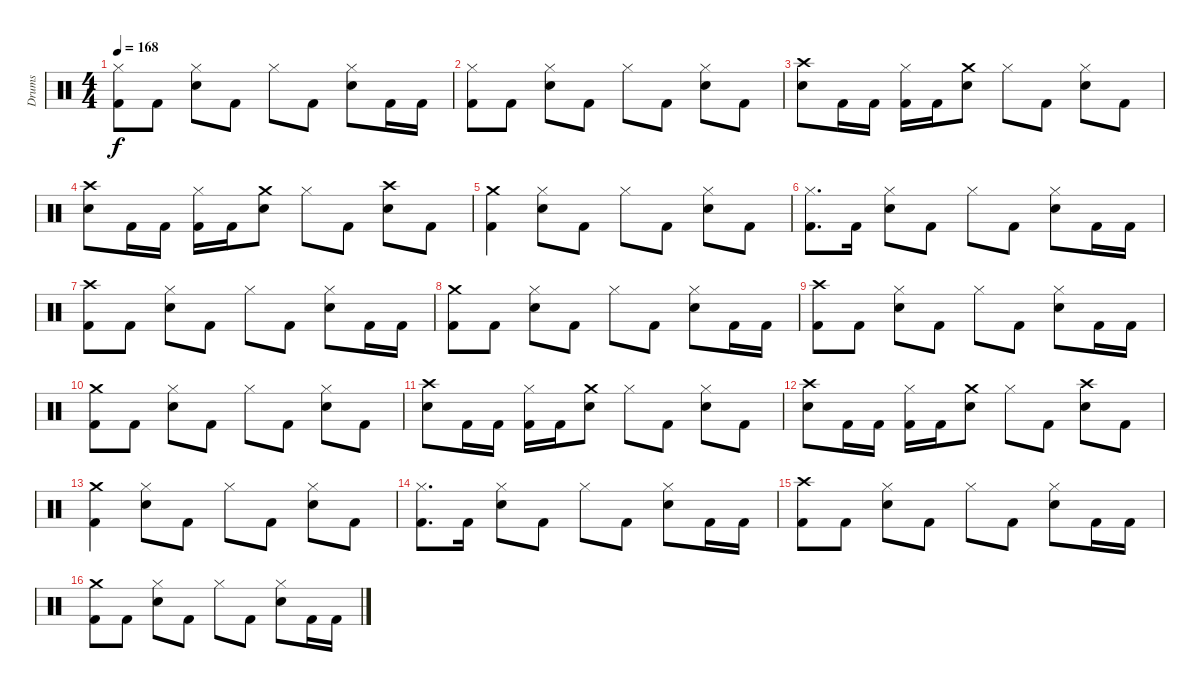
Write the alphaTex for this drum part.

\track ("Drums" "Drums") {instrument percussion}
\staff {score}
\articulation defaults
\ts (4 4)
\tempo 168
\clef neutral
\ks c
("Hi-Hat (closed)" "Kick (hit) 2").8{dy f} "Kick (hit) 2".8 ("Hi-Hat (closed)" "Snare (hit) 2").8 "Kick (hit) 2".8 "Hi-Hat (closed)".8 "Kick (hit) 2".8 ("Hi-Hat (closed)" "Snare (hit) 2").8 "Kick (hit) 2".16 "Kick (hit) 2".16 |
("Hi-Hat (closed)" "Kick (hit) 2").8 "Kick (hit) 2".8 ("Hi-Hat (closed)" "Snare (hit) 2").8 "Kick (hit) 2".8 "Hi-Hat (closed)".8 "Kick (hit) 2".8 ("Hi-Hat (closed)" "Snare (hit) 2").8 "Kick (hit) 2".8 |
("Crash high (hit)" "Snare (hit) 2").8 "Kick (hit) 2".16 "Kick (hit) 2".16 ("Hi-Hat (closed)" "Kick (hit) 2").16 "Kick (hit) 2".16 ("Crash medium (hit)" "Snare (hit) 2").8 "Hi-Hat (closed)".8 "Kick (hit) 2".8 ("Hi-Hat (closed)" "Snare (hit) 2").8 "Kick (hit) 2".8 |
("Crash high (hit)" "Snare (hit) 2").8 "Kick (hit) 2".16 "Kick (hit) 2".16 ("Hi-Hat (closed)" "Kick (hit) 2").16 "Kick (hit) 2".16 ("Crash medium (hit)" "Snare (hit) 2").8 "Hi-Hat (closed)".8 "Kick (hit) 2".8 ("Crash high (hit)" "Snare (hit) 2").8 "Kick (hit) 2".8 |
("Crash medium (hit)" "Kick (hit) 2").4 ("Hi-Hat (closed)" "Snare (hit) 2").8 "Kick (hit) 2".8 "Hi-Hat (closed)".8 "Kick (hit) 2".8 ("Hi-Hat (closed)" "Snare (hit) 2").8 "Kick (hit) 2".8 |
("Hi-Hat (closed)" "Kick (hit) 2").8{d} "Kick (hit) 2".16 ("Hi-Hat (closed)" "Snare (hit) 2").8 "Kick (hit) 2".8 "Hi-Hat (closed)".8 "Kick (hit) 2".8 ("Hi-Hat (closed)" "Snare (hit) 2").8 "Kick (hit) 2".16 "Kick (hit) 2".16 |
("Crash high (hit)" "Kick (hit) 2").8 "Kick (hit) 2".8 ("Hi-Hat (closed)" "Snare (hit) 2").8 "Kick (hit) 2".8 "Hi-Hat (closed)".8 "Kick (hit) 2".8 ("Hi-Hat (closed)" "Snare (hit) 2").8 "Kick (hit) 2".16 "Kick (hit) 2".16 |
("Crash medium (hit)" "Kick (hit) 2").8 "Kick (hit) 2".8 ("Hi-Hat (closed)" "Snare (hit) 2").8 "Kick (hit) 2".8 "Hi-Hat (closed)".8 "Kick (hit) 2".8 ("Hi-Hat (closed)" "Snare (hit) 2").8 "Kick (hit) 2".16 "Kick (hit) 2".16 |
("Crash high (hit)" "Kick (hit) 2").8 "Kick (hit) 2".8 ("Hi-Hat (closed)" "Snare (hit) 2").8 "Kick (hit) 2".8 "Hi-Hat (closed)".8 "Kick (hit) 2".8 ("Hi-Hat (closed)" "Snare (hit) 2").8 "Kick (hit) 2".16 "Kick (hit) 2".16 |
("Crash medium (hit)" "Kick (hit) 2").8 "Kick (hit) 2".8 ("Hi-Hat (closed)" "Snare (hit) 2").8 "Kick (hit) 2".8 "Hi-Hat (closed)".8 "Kick (hit) 2".8 ("Hi-Hat (closed)" "Snare (hit) 2").8 "Kick (hit) 2".8 |
("Crash high (hit)" "Snare (hit) 2").8 "Kick (hit) 2".16 "Kick (hit) 2".16 ("Hi-Hat (closed)" "Kick (hit) 2").16 "Kick (hit) 2".16 ("Crash medium (hit)" "Snare (hit) 2").8 "Hi-Hat (closed)".8 "Kick (hit) 2".8 ("Hi-Hat (closed)" "Snare (hit) 2").8 "Kick (hit) 2".8 |
("Crash high (hit)" "Snare (hit) 2").8 "Kick (hit) 2".16 "Kick (hit) 2".16 ("Hi-Hat (closed)" "Kick (hit) 2").16 "Kick (hit) 2".16 ("Crash medium (hit)" "Snare (hit) 2").8 "Hi-Hat (closed)".8 "Kick (hit) 2".8 ("Crash high (hit)" "Snare (hit) 2").8 "Kick (hit) 2".8 |
("Crash medium (hit)" "Kick (hit) 2").4 ("Hi-Hat (closed)" "Snare (hit) 2").8 "Kick (hit) 2".8 "Hi-Hat (closed)".8 "Kick (hit) 2".8 ("Hi-Hat (closed)" "Snare (hit) 2").8 "Kick (hit) 2".8 |
("Hi-Hat (closed)" "Kick (hit) 2").8{d} "Kick (hit) 2".16 ("Hi-Hat (closed)" "Snare (hit) 2").8 "Kick (hit) 2".8 "Hi-Hat (closed)".8 "Kick (hit) 2".8 ("Hi-Hat (closed)" "Snare (hit) 2").8 "Kick (hit) 2".16 "Kick (hit) 2".16 |
("Crash high (hit)" "Kick (hit) 2").8 "Kick (hit) 2".8 ("Hi-Hat (closed)" "Snare (hit) 2").8 "Kick (hit) 2".8 "Hi-Hat (closed)".8 "Kick (hit) 2".8 ("Hi-Hat (closed)" "Snare (hit) 2").8 "Kick (hit) 2".16 "Kick (hit) 2".16 |
("Crash medium (hit)" "Kick (hit) 2").8 "Kick (hit) 2".8 ("Hi-Hat (closed)" "Snare (hit) 2").8 "Kick (hit) 2".8 "Hi-Hat (closed)".8 "Kick (hit) 2".8 ("Hi-Hat (closed)" "Snare (hit) 2").8 "Kick (hit) 2".16 "Kick (hit) 2".16
